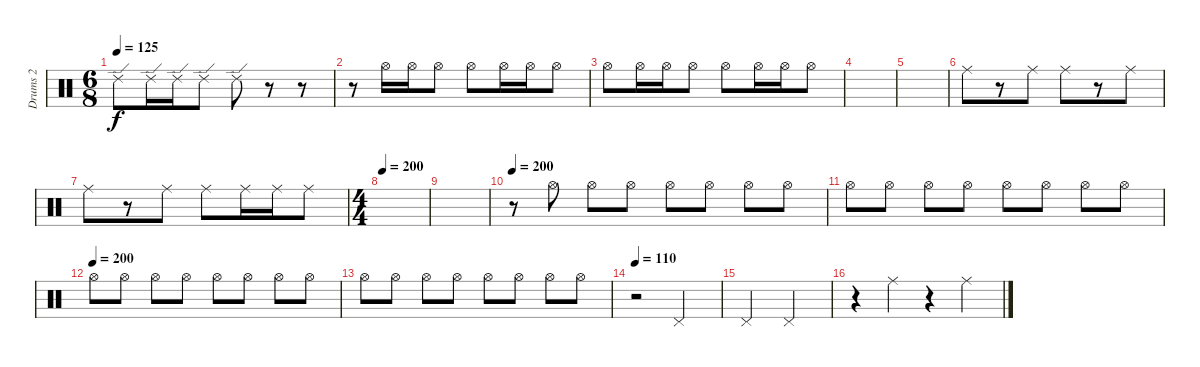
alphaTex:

\track ("Drums 2" "Drums 2") {instrument percussion}
\staff {score}
\articulation defaults
\ts (6 8)
\tempo 125
\clef neutral
\ks c "Ride (edge) 2".8{dy f} "Ride (edge) 2".16 "Ride (edge) 2".16 "Ride (edge) 2".8 "Ride (edge) 2".8
r.8 r.8 |
r.8 "Hi-Hat (open)".16 "Hi-Hat (open)".16 "Hi-Hat (open)".8 "Hi-Hat (open)".8 "Hi-Hat (open)".16 "Hi-Hat (open)".16 "Hi-Hat (open)".8 |
"Hi-Hat (open)".8 "Hi-Hat (open)".16 "Hi-Hat (open)".16 "Hi-Hat (open)".8 "Hi-Hat (open)".8 "Hi-Hat (open)".16 "Hi-Hat (open)".16 "Hi-Hat (open)".8 |
|
|
"Ride (middle)".8 r.8 "Ride (middle)".8 "Ride (middle)".8 r.8 "Ride (middle)".8 |
"Ride (middle)".8 r.8 "Ride (middle)".8 "Ride (middle)".8 "Ride (middle)".16 "Ride (middle)".16 "Ride (middle)".8 |
\ts (4 4)
\tempo 200
|
|
\tempo 200
r.8 "Hi-Hat (open)".8 "Hi-Hat (open)".8 "Hi-Hat (open)".8 "Hi-Hat (open)".8 "Hi-Hat (open)".8 "Hi-Hat (open)".8 "Hi-Hat (open)".8 |
"Hi-Hat (open)".8 "Hi-Hat (open)".8 "Hi-Hat (open)".8 "Hi-Hat (open)".8 "Hi-Hat (open)".8 "Hi-Hat (open)".8 "Hi-Hat (open)".8 "Hi-Hat (open)".8 |
\tempo (200)
"Hi-Hat (open)".8 "Hi-Hat (open)".8 "Hi-Hat (open)".8 "Hi-Hat (open)".8 "Hi-Hat (open)".8 "Hi-Hat (open)".8 "Hi-Hat (open)".8 "Hi-Hat (open)".8 |
"Hi-Hat (open)".8 "Hi-Hat (open)".8 "Hi-Hat (open)".8 "Hi-Hat (open)".8 "Hi-Hat (open)".8 "Hi-Hat (open)".8 "Hi-Hat (open)".8 "Hi-Hat (open)".8 |
\tempo 95
\tempo 110
r.2 "Pedal Hi-Hat (hit)".2 |
"Pedal Hi-Hat (hit)".2 "Pedal Hi-Hat (hit)".2 |
r.4 "Ride (middle)".4 r.4 "Ride (middle)".4
